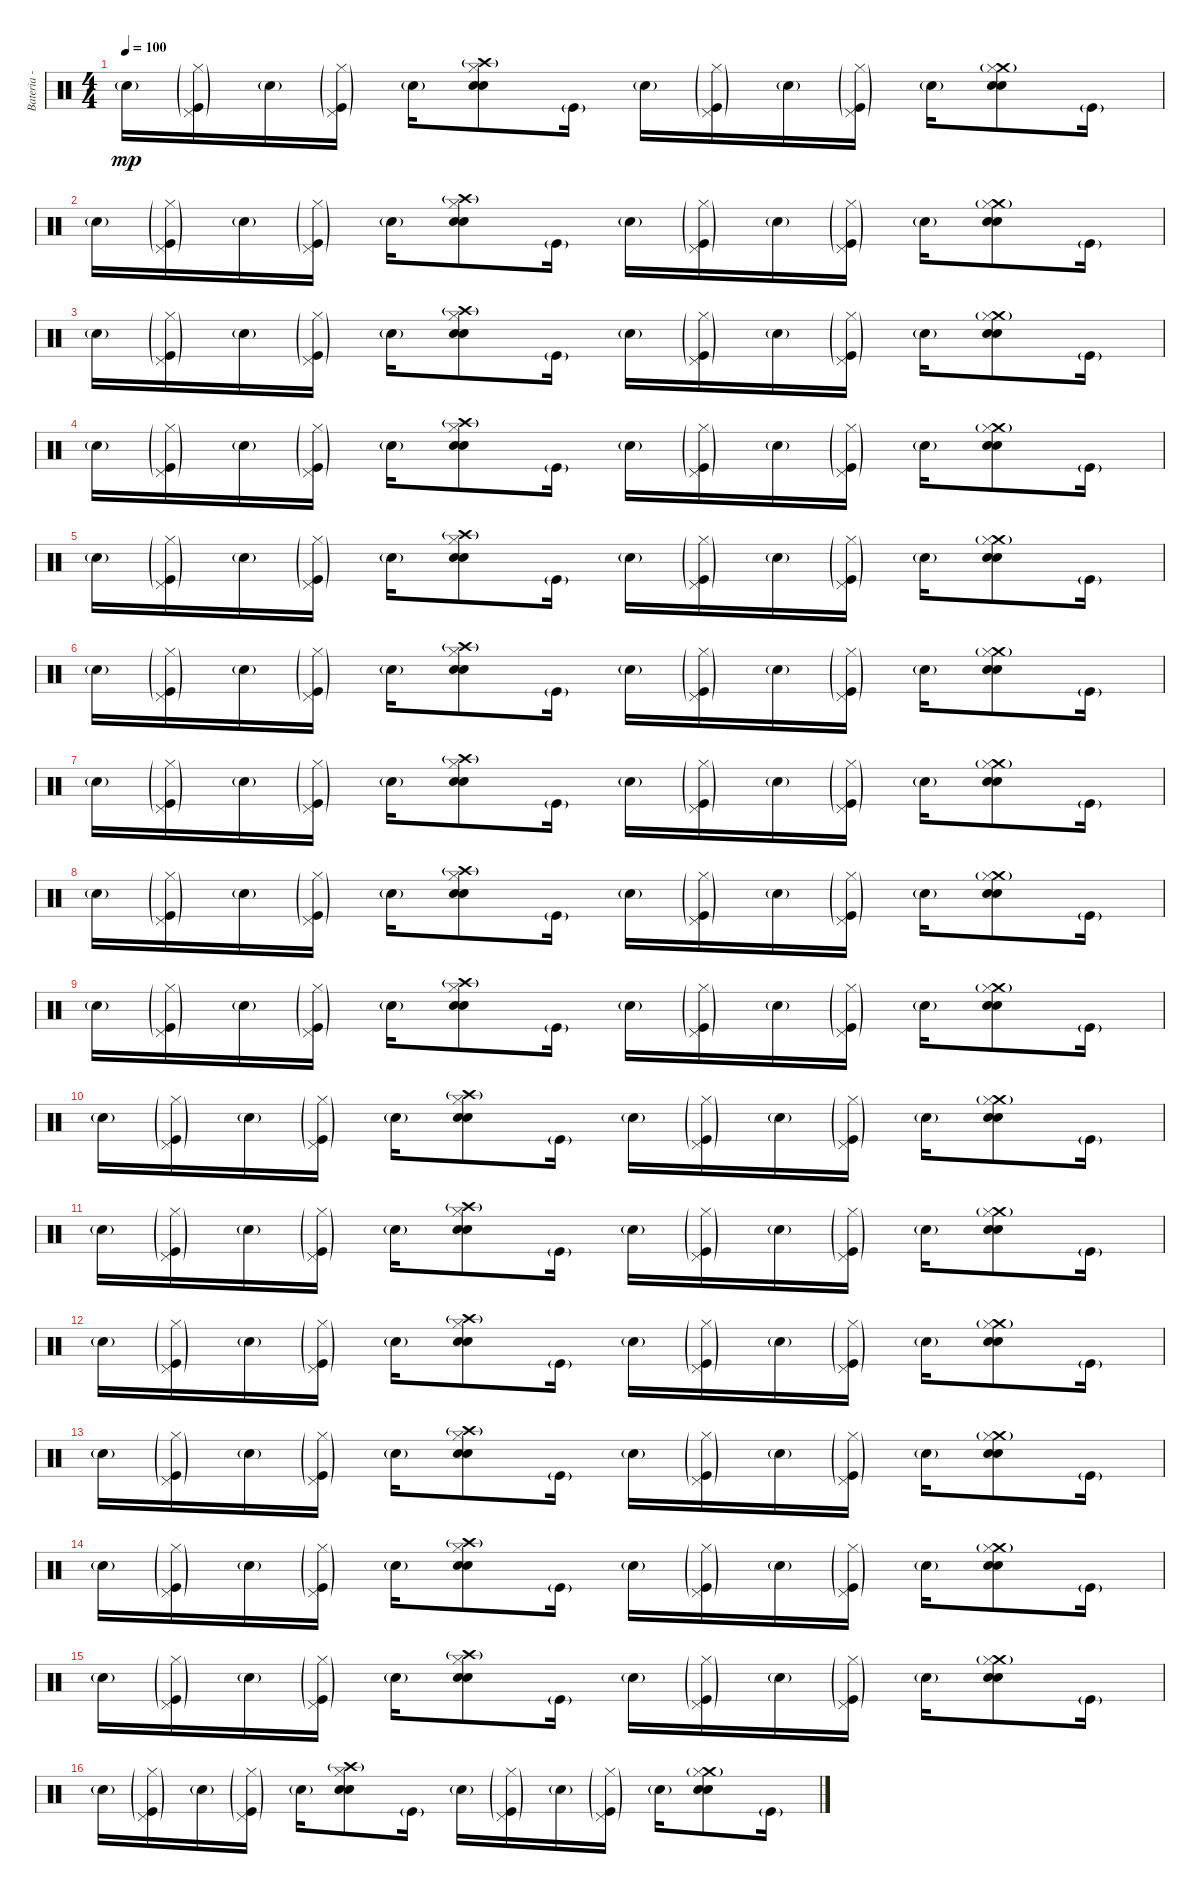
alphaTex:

\track ("Bateria - GONÇALO" "Bateria - ") {instrument percussion}
\staff {score}
\articulation defaults
\ts (4 4)
\tempo 100
\clef neutral
\ks c "Electric Snare (hit)"{g}.16{dy mp}
("Hi-Hat (closed)"{g} "Pedal Hi-Hat (hit)"{g} "Kick (hit)"{g}).16 "Snare (hit) 2"{g}.16 ("Hi-Hat (closed)"{g} "Pedal Hi-Hat (hit)"{g} "Kick (hit)"{g}).16 "Electric Snare (hit)"{g}.16 ("Crash high (hit)"{g} "Snare (hit) 2" "Electric Snare (hit)" "Hi-Hat (closed)").8 "Kick (hit)"{g}.16 "Electric Snare (hit)"{g}.16 ("Hi-Hat (closed)"{g} "Pedal Hi-Hat (hit)"{g} "Kick (hit)"{g}).16 "Snare (hit) 2"{g}.16 ("Hi-Hat (closed)"{g} "Pedal Hi-Hat (hit)"{g} "Kick (hit)"{g}).16 "Electric Snare (hit)"{g}.16 ("Crash medium (hit)"{g} "Snare (hit) 2" "Electric Snare (hit)" "Hi-Hat (closed)").8 "Kick (hit)"{g}.16 |
"Electric Snare (hit)"{g}.16 ("Hi-Hat (closed)"{g} "Pedal Hi-Hat (hit)"{g} "Kick (hit)"{g}).16 "Snare (hit) 2"{g}.16 ("Hi-Hat (closed)"{g} "Pedal Hi-Hat (hit)"{g} "Kick (hit)"{g}).16 "Electric Snare (hit)"{g}.16 ("Crash high (hit)"{g} "Snare (hit) 2" "Electric Snare (hit)" "Hi-Hat (closed)").8 "Kick (hit)"{g}.16 "Electric Snare (hit)"{g}.16 ("Hi-Hat (closed)"{g} "Pedal Hi-Hat (hit)"{g} "Kick (hit)"{g}).16 "Snare (hit) 2"{g}.16 ("Hi-Hat (closed)"{g} "Pedal Hi-Hat (hit)"{g} "Kick (hit)"{g}).16 "Electric Snare (hit)"{g}.16 ("Crash medium (hit)"{g} "Snare (hit) 2" "Electric Snare (hit)" "Hi-Hat (closed)").8 "Kick (hit)"{g}.16 |
"Electric Snare (hit)"{g}.16 ("Hi-Hat (closed)"{g} "Pedal Hi-Hat (hit)"{g} "Kick (hit)"{g}).16 "Snare (hit) 2"{g}.16 ("Hi-Hat (closed)"{g} "Pedal Hi-Hat (hit)"{g} "Kick (hit)"{g}).16 "Electric Snare (hit)"{g}.16 ("Crash high (hit)"{g} "Snare (hit) 2" "Electric Snare (hit)" "Hi-Hat (closed)").8 "Kick (hit)"{g}.16 "Electric Snare (hit)"{g}.16 ("Hi-Hat (closed)"{g} "Pedal Hi-Hat (hit)"{g} "Kick (hit)"{g}).16 "Snare (hit) 2"{g}.16 ("Hi-Hat (closed)"{g} "Pedal Hi-Hat (hit)"{g} "Kick (hit)"{g}).16 "Electric Snare (hit)"{g}.16 ("Crash medium (hit)"{g} "Snare (hit) 2" "Electric Snare (hit)" "Hi-Hat (closed)").8 "Kick (hit)"{g}.16 |
"Electric Snare (hit)"{g}.16 ("Hi-Hat (closed)"{g} "Pedal Hi-Hat (hit)"{g} "Kick (hit)"{g}).16 "Snare (hit) 2"{g}.16 ("Hi-Hat (closed)"{g} "Pedal Hi-Hat (hit)"{g} "Kick (hit)"{g}).16 "Electric Snare (hit)"{g}.16 ("Crash high (hit)"{g} "Snare (hit) 2" "Electric Snare (hit)" "Hi-Hat (closed)").8 "Kick (hit)"{g}.16 "Electric Snare (hit)"{g}.16 ("Hi-Hat (closed)"{g} "Pedal Hi-Hat (hit)"{g} "Kick (hit)"{g}).16 "Snare (hit) 2"{g}.16 ("Hi-Hat (closed)"{g} "Pedal Hi-Hat (hit)"{g} "Kick (hit)"{g}).16 "Electric Snare (hit)"{g}.16 ("Crash medium (hit)"{g} "Snare (hit) 2" "Electric Snare (hit)" "Hi-Hat (closed)").8 "Kick (hit)"{g}.16 |
"Electric Snare (hit)"{g}.16 ("Hi-Hat (closed)"{g} "Pedal Hi-Hat (hit)"{g} "Kick (hit)"{g}).16 "Snare (hit) 2"{g}.16 ("Hi-Hat (closed)"{g} "Pedal Hi-Hat (hit)"{g} "Kick (hit)"{g}).16 "Electric Snare (hit)"{g}.16 ("Crash high (hit)"{g} "Snare (hit) 2" "Electric Snare (hit)" "Hi-Hat (closed)").8 "Kick (hit)"{g}.16 "Electric Snare (hit)"{g}.16 ("Hi-Hat (closed)"{g} "Pedal Hi-Hat (hit)"{g} "Kick (hit)"{g}).16 "Snare (hit) 2"{g}.16 ("Hi-Hat (closed)"{g} "Pedal Hi-Hat (hit)"{g} "Kick (hit)"{g}).16 "Electric Snare (hit)"{g}.16 ("Crash medium (hit)"{g} "Snare (hit) 2" "Electric Snare (hit)" "Hi-Hat (closed)").8 "Kick (hit)"{g}.16 |
"Electric Snare (hit)"{g}.16 ("Hi-Hat (closed)"{g} "Pedal Hi-Hat (hit)"{g} "Kick (hit)"{g}).16 "Snare (hit) 2"{g}.16 ("Hi-Hat (closed)"{g} "Pedal Hi-Hat (hit)"{g} "Kick (hit)"{g}).16 "Electric Snare (hit)"{g}.16 ("Crash high (hit)"{g} "Snare (hit) 2" "Electric Snare (hit)" "Hi-Hat (closed)").8 "Kick (hit)"{g}.16 "Electric Snare (hit)"{g}.16 ("Hi-Hat (closed)"{g} "Pedal Hi-Hat (hit)"{g} "Kick (hit)"{g}).16 "Snare (hit) 2"{g}.16 ("Hi-Hat (closed)"{g} "Pedal Hi-Hat (hit)"{g} "Kick (hit)"{g}).16 "Electric Snare (hit)"{g}.16 ("Crash medium (hit)"{g} "Snare (hit) 2" "Electric Snare (hit)" "Hi-Hat (closed)").8 "Kick (hit)"{g}.16 |
"Electric Snare (hit)"{g}.16 ("Hi-Hat (closed)"{g} "Pedal Hi-Hat (hit)"{g} "Kick (hit)"{g}).16 "Snare (hit) 2"{g}.16 ("Hi-Hat (closed)"{g} "Pedal Hi-Hat (hit)"{g} "Kick (hit)"{g}).16 "Electric Snare (hit)"{g}.16 ("Crash high (hit)"{g} "Snare (hit) 2" "Electric Snare (hit)" "Hi-Hat (closed)").8 "Kick (hit)"{g}.16 "Electric Snare (hit)"{g}.16 ("Hi-Hat (closed)"{g} "Pedal Hi-Hat (hit)"{g} "Kick (hit)"{g}).16 "Snare (hit) 2"{g}.16 ("Hi-Hat (closed)"{g} "Pedal Hi-Hat (hit)"{g} "Kick (hit)"{g}).16 "Electric Snare (hit)"{g}.16 ("Crash medium (hit)"{g} "Snare (hit) 2" "Electric Snare (hit)" "Hi-Hat (closed)").8 "Kick (hit)"{g}.16 |
"Electric Snare (hit)"{g}.16 ("Hi-Hat (closed)"{g} "Pedal Hi-Hat (hit)"{g} "Kick (hit)"{g}).16 "Snare (hit) 2"{g}.16 ("Hi-Hat (closed)"{g} "Pedal Hi-Hat (hit)"{g} "Kick (hit)"{g}).16 "Electric Snare (hit)"{g}.16 ("Crash high (hit)"{g} "Snare (hit) 2" "Electric Snare (hit)" "Hi-Hat (closed)").8 "Kick (hit)"{g}.16 "Electric Snare (hit)"{g}.16 ("Hi-Hat (closed)"{g} "Pedal Hi-Hat (hit)"{g} "Kick (hit)"{g}).16 "Snare (hit) 2"{g}.16 ("Hi-Hat (closed)"{g} "Pedal Hi-Hat (hit)"{g} "Kick (hit)"{g}).16 "Electric Snare (hit)"{g}.16 ("Crash medium (hit)"{g} "Snare (hit) 2" "Electric Snare (hit)" "Hi-Hat (closed)").8 "Kick (hit)"{g}.16 |
"Electric Snare (hit)"{g}.16 ("Hi-Hat (closed)"{g} "Pedal Hi-Hat (hit)"{g} "Kick (hit)"{g}).16 "Snare (hit) 2"{g}.16 ("Hi-Hat (closed)"{g} "Pedal Hi-Hat (hit)"{g} "Kick (hit)"{g}).16 "Electric Snare (hit)"{g}.16 ("Crash high (hit)"{g} "Snare (hit) 2" "Electric Snare (hit)" "Hi-Hat (closed)").8 "Kick (hit)"{g}.16 "Electric Snare (hit)"{g}.16 ("Hi-Hat (closed)"{g} "Pedal Hi-Hat (hit)"{g} "Kick (hit)"{g}).16 "Snare (hit) 2"{g}.16 ("Hi-Hat (closed)"{g} "Pedal Hi-Hat (hit)"{g} "Kick (hit)"{g}).16 "Electric Snare (hit)"{g}.16 ("Crash medium (hit)"{g} "Snare (hit) 2" "Electric Snare (hit)" "Hi-Hat (closed)").8 "Kick (hit)"{g}.16 |
"Electric Snare (hit)"{g}.16 ("Hi-Hat (closed)"{g} "Pedal Hi-Hat (hit)"{g} "Kick (hit)"{g}).16 "Snare (hit) 2"{g}.16 ("Hi-Hat (closed)"{g} "Pedal Hi-Hat (hit)"{g} "Kick (hit)"{g}).16 "Electric Snare (hit)"{g}.16 ("Crash high (hit)"{g} "Snare (hit) 2" "Electric Snare (hit)" "Hi-Hat (closed)").8 "Kick (hit)"{g}.16 "Electric Snare (hit)"{g}.16 ("Hi-Hat (closed)"{g} "Pedal Hi-Hat (hit)"{g} "Kick (hit)"{g}).16 "Snare (hit) 2"{g}.16 ("Hi-Hat (closed)"{g} "Pedal Hi-Hat (hit)"{g} "Kick (hit)"{g}).16 "Electric Snare (hit)"{g}.16 ("Crash medium (hit)"{g} "Snare (hit) 2" "Electric Snare (hit)" "Hi-Hat (closed)").8 "Kick (hit)"{g}.16 |
"Electric Snare (hit)"{g}.16 ("Hi-Hat (closed)"{g} "Pedal Hi-Hat (hit)"{g} "Kick (hit)"{g}).16 "Snare (hit) 2"{g}.16 ("Hi-Hat (closed)"{g} "Pedal Hi-Hat (hit)"{g} "Kick (hit)"{g}).16 "Electric Snare (hit)"{g}.16 ("Crash high (hit)"{g} "Snare (hit) 2" "Electric Snare (hit)" "Hi-Hat (closed)").8 "Kick (hit)"{g}.16 "Electric Snare (hit)"{g}.16 ("Hi-Hat (closed)"{g} "Pedal Hi-Hat (hit)"{g} "Kick (hit)"{g}).16 "Snare (hit) 2"{g}.16 ("Hi-Hat (closed)"{g} "Pedal Hi-Hat (hit)"{g} "Kick (hit)"{g}).16 "Electric Snare (hit)"{g}.16 ("Crash medium (hit)"{g} "Snare (hit) 2" "Electric Snare (hit)" "Hi-Hat (closed)").8 "Kick (hit)"{g}.16 |
"Electric Snare (hit)"{g}.16 ("Hi-Hat (closed)"{g} "Pedal Hi-Hat (hit)"{g} "Kick (hit)"{g}).16 "Snare (hit) 2"{g}.16 ("Hi-Hat (closed)"{g} "Pedal Hi-Hat (hit)"{g} "Kick (hit)"{g}).16 "Electric Snare (hit)"{g}.16 ("Crash high (hit)"{g} "Snare (hit) 2" "Electric Snare (hit)" "Hi-Hat (closed)").8 "Kick (hit)"{g}.16 "Electric Snare (hit)"{g}.16 ("Hi-Hat (closed)"{g} "Pedal Hi-Hat (hit)"{g} "Kick (hit)"{g}).16 "Snare (hit) 2"{g}.16 ("Hi-Hat (closed)"{g} "Pedal Hi-Hat (hit)"{g} "Kick (hit)"{g}).16 "Electric Snare (hit)"{g}.16 ("Crash medium (hit)"{g} "Snare (hit) 2" "Electric Snare (hit)" "Hi-Hat (closed)").8 "Kick (hit)"{g}.16 |
"Electric Snare (hit)"{g}.16 ("Hi-Hat (closed)"{g} "Pedal Hi-Hat (hit)"{g} "Kick (hit)"{g}).16 "Snare (hit) 2"{g}.16 ("Hi-Hat (closed)"{g} "Pedal Hi-Hat (hit)"{g} "Kick (hit)"{g}).16 "Electric Snare (hit)"{g}.16 ("Crash high (hit)"{g} "Snare (hit) 2" "Electric Snare (hit)" "Hi-Hat (closed)").8 "Kick (hit)"{g}.16 "Electric Snare (hit)"{g}.16 ("Hi-Hat (closed)"{g} "Pedal Hi-Hat (hit)"{g} "Kick (hit)"{g}).16 "Snare (hit) 2"{g}.16 ("Hi-Hat (closed)"{g} "Pedal Hi-Hat (hit)"{g} "Kick (hit)"{g}).16 "Electric Snare (hit)"{g}.16 ("Crash medium (hit)"{g} "Snare (hit) 2" "Electric Snare (hit)" "Hi-Hat (closed)").8 "Kick (hit)"{g}.16 |
"Electric Snare (hit)"{g}.16 ("Hi-Hat (closed)"{g} "Pedal Hi-Hat (hit)"{g} "Kick (hit)"{g}).16 "Snare (hit) 2"{g}.16 ("Hi-Hat (closed)"{g} "Pedal Hi-Hat (hit)"{g} "Kick (hit)"{g}).16 "Electric Snare (hit)"{g}.16 ("Crash high (hit)"{g} "Snare (hit) 2" "Electric Snare (hit)" "Hi-Hat (closed)").8 "Kick (hit)"{g}.16 "Electric Snare (hit)"{g}.16 ("Hi-Hat (closed)"{g} "Pedal Hi-Hat (hit)"{g} "Kick (hit)"{g}).16 "Snare (hit) 2"{g}.16 ("Hi-Hat (closed)"{g} "Pedal Hi-Hat (hit)"{g} "Kick (hit)"{g}).16 "Electric Snare (hit)"{g}.16 ("Crash medium (hit)"{g} "Snare (hit) 2" "Electric Snare (hit)" "Hi-Hat (closed)").8 "Kick (hit)"{g}.16 |
"Electric Snare (hit)"{g}.16 ("Hi-Hat (closed)"{g} "Pedal Hi-Hat (hit)"{g} "Kick (hit)"{g}).16 "Snare (hit) 2"{g}.16 ("Hi-Hat (closed)"{g} "Pedal Hi-Hat (hit)"{g} "Kick (hit)"{g}).16 "Electric Snare (hit)"{g}.16 ("Crash high (hit)"{g} "Snare (hit) 2" "Electric Snare (hit)" "Hi-Hat (closed)").8 "Kick (hit)"{g}.16 "Electric Snare (hit)"{g}.16 ("Hi-Hat (closed)"{g} "Pedal Hi-Hat (hit)"{g} "Kick (hit)"{g}).16 "Snare (hit) 2"{g}.16 ("Hi-Hat (closed)"{g} "Pedal Hi-Hat (hit)"{g} "Kick (hit)"{g}).16 "Electric Snare (hit)"{g}.16 ("Crash medium (hit)"{g} "Snare (hit) 2" "Electric Snare (hit)" "Hi-Hat (closed)").8 "Kick (hit)"{g}.16 |
"Electric Snare (hit)"{g}.16 ("Hi-Hat (closed)"{g} "Pedal Hi-Hat (hit)"{g} "Kick (hit)"{g}).16 "Snare (hit) 2"{g}.16 ("Hi-Hat (closed)"{g} "Pedal Hi-Hat (hit)"{g} "Kick (hit)"{g}).16 "Electric Snare (hit)"{g}.16 ("Crash high (hit)"{g} "Snare (hit) 2" "Electric Snare (hit)" "Hi-Hat (closed)").8 "Kick (hit)"{g}.16 "Electric Snare (hit)"{g}.16 ("Hi-Hat (closed)"{g} "Pedal Hi-Hat (hit)"{g} "Kick (hit)"{g}).16 "Snare (hit) 2"{g}.16 ("Hi-Hat (closed)"{g} "Pedal Hi-Hat (hit)"{g} "Kick (hit)"{g}).16 "Electric Snare (hit)"{g}.16 ("Crash medium (hit)"{g} "Snare (hit) 2" "Electric Snare (hit)" "Hi-Hat (closed)").8 "Kick (hit)"{g}.16
